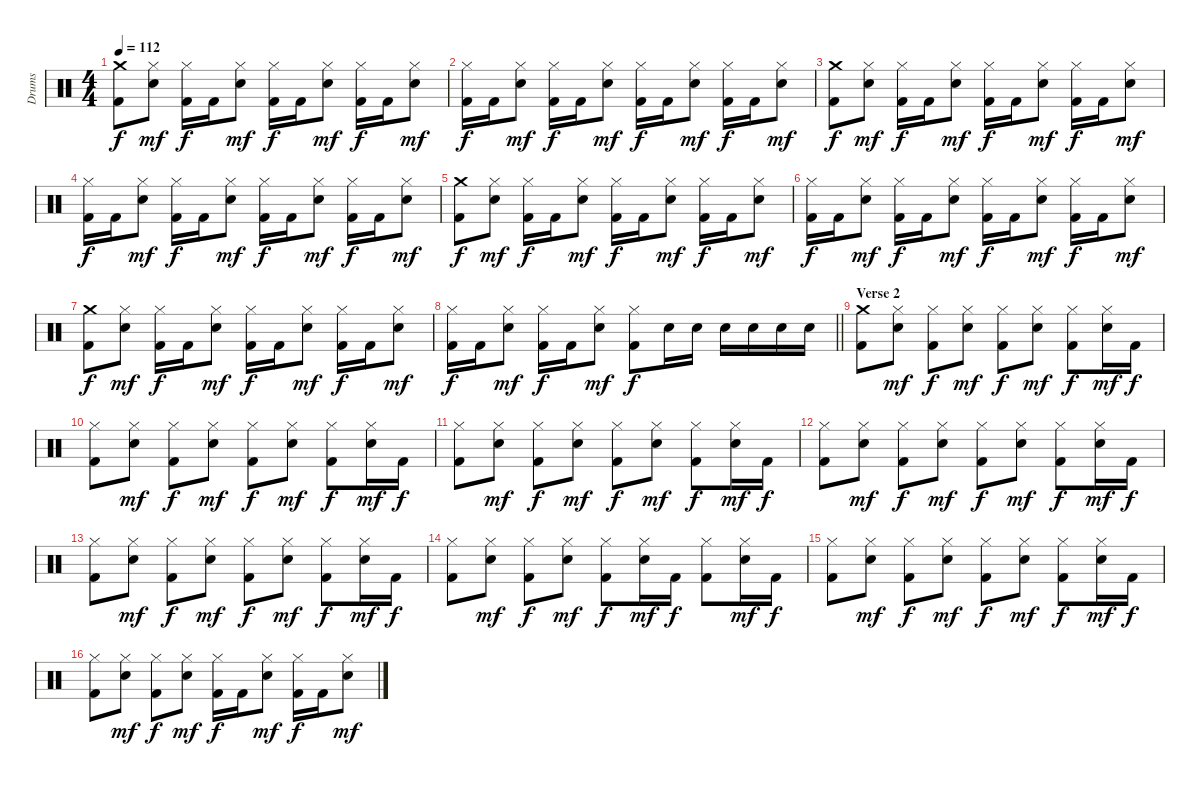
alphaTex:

\track ("Drums" "Drums") {instrument percussion}
\staff {score}
\articulation defaults
\ts (4 4)
\tempo 112
\clef neutral
\ks c
("Crash medium (hit)" "Kick (hit) 2").8{dy f} ("Hi-Hat (closed)" "Snare (hit) 2").8{dy mf} ("Hi-Hat (closed)" "Kick (hit) 2").16{dy f} "Kick (hit) 2".16 ("Hi-Hat (closed)" "Snare (hit) 2").8{dy mf} ("Hi-Hat (closed)" "Kick (hit) 2").16{dy f} "Kick (hit) 2".16 ("Hi-Hat (closed)" "Snare (hit) 2").8{dy mf} ("Hi-Hat (closed)" "Kick (hit) 2").16{dy f} "Kick (hit) 2".16 ("Hi-Hat (closed)" "Snare (hit) 2").8{dy mf} |
("Hi-Hat (closed)" "Kick (hit) 2").16{dy f} "Kick (hit) 2".16 ("Hi-Hat (closed)" "Snare (hit) 2").8{dy mf} ("Hi-Hat (closed)" "Kick (hit) 2").16{dy f} "Kick (hit) 2".16 ("Hi-Hat (closed)" "Snare (hit) 2").8{dy mf} ("Hi-Hat (closed)" "Kick (hit) 2").16{dy f} "Kick (hit) 2".16 ("Hi-Hat (closed)" "Snare (hit) 2").8{dy mf} ("Hi-Hat (closed)" "Kick (hit) 2").16{dy f} "Kick (hit) 2".16 ("Hi-Hat (closed)" "Snare (hit) 2").8{dy mf} |
("Crash medium (hit)" "Kick (hit) 2").8{dy f} ("Hi-Hat (closed)" "Snare (hit) 2").8{dy mf} ("Hi-Hat (closed)" "Kick (hit) 2").16{dy f} "Kick (hit) 2".16 ("Hi-Hat (closed)" "Snare (hit) 2").8{dy mf} ("Hi-Hat (closed)" "Kick (hit) 2").16{dy f} "Kick (hit) 2".16 ("Hi-Hat (closed)" "Snare (hit) 2").8{dy mf} ("Hi-Hat (closed)" "Kick (hit) 2").16{dy f} "Kick (hit) 2".16 ("Hi-Hat (closed)" "Snare (hit) 2").8{dy mf} |
("Hi-Hat (closed)" "Kick (hit) 2").16{dy f} "Kick (hit) 2".16 ("Hi-Hat (closed)" "Snare (hit) 2").8{dy mf} ("Hi-Hat (closed)" "Kick (hit) 2").16{dy f} "Kick (hit) 2".16 ("Hi-Hat (closed)" "Snare (hit) 2").8{dy mf} ("Hi-Hat (closed)" "Kick (hit) 2").16{dy f} "Kick (hit) 2".16 ("Hi-Hat (closed)" "Snare (hit) 2").8{dy mf} ("Hi-Hat (closed)" "Kick (hit) 2").16{dy f} "Kick (hit) 2".16 ("Hi-Hat (closed)" "Snare (hit) 2").8{dy mf} |
("Crash medium (hit)" "Kick (hit) 2").8{dy f} ("Hi-Hat (closed)" "Snare (hit) 2").8{dy mf} ("Hi-Hat (closed)" "Kick (hit) 2").16{dy f} "Kick (hit) 2".16 ("Hi-Hat (closed)" "Snare (hit) 2").8{dy mf} ("Hi-Hat (closed)" "Kick (hit) 2").16{dy f} "Kick (hit) 2".16 ("Hi-Hat (closed)" "Snare (hit) 2").8{dy mf} ("Hi-Hat (closed)" "Kick (hit) 2").16{dy f} "Kick (hit) 2".16 ("Hi-Hat (closed)" "Snare (hit) 2").8{dy mf} |
("Hi-Hat (closed)" "Kick (hit) 2").16{dy f} "Kick (hit) 2".16 ("Hi-Hat (closed)" "Snare (hit) 2").8{dy mf} ("Hi-Hat (closed)" "Kick (hit) 2").16{dy f} "Kick (hit) 2".16 ("Hi-Hat (closed)" "Snare (hit) 2").8{dy mf} ("Hi-Hat (closed)" "Kick (hit) 2").16{dy f} "Kick (hit) 2".16 ("Hi-Hat (closed)" "Snare (hit) 2").8{dy mf} ("Hi-Hat (closed)" "Kick (hit) 2").16{dy f} "Kick (hit) 2".16 ("Hi-Hat (closed)" "Snare (hit) 2").8{dy mf} |
("Crash medium (hit)" "Kick (hit) 2").8{dy f} ("Hi-Hat (closed)" "Snare (hit) 2").8{dy mf} ("Hi-Hat (closed)" "Kick (hit) 2").16{dy f} "Kick (hit) 2".16 ("Hi-Hat (closed)" "Snare (hit) 2").8{dy mf} ("Hi-Hat (closed)" "Kick (hit) 2").16{dy f} "Kick (hit) 2".16 ("Hi-Hat (closed)" "Snare (hit) 2").8{dy mf} ("Hi-Hat (closed)" "Kick (hit) 2").16{dy f} "Kick (hit) 2".16 ("Hi-Hat (closed)" "Snare (hit) 2").8{dy mf} |
\barLineRight lightlight
("Hi-Hat (closed)" "Kick (hit) 2").16{dy f} "Kick (hit) 2".16 ("Hi-Hat (closed)" "Snare (hit) 2").8{dy mf} ("Hi-Hat (closed)" "Kick (hit) 2").16{dy f} "Kick (hit) 2".16 ("Hi-Hat (closed)" "Snare (hit) 2").8{dy mf} ("Hi-Hat (closed)" "Kick (hit) 2").8{dy f} "Snare (hit) 2".16 "Snare (hit) 2".16 "Snare (hit) 2".16 "Snare (hit) 2".16 "Snare (hit) 2".16 "Snare (hit) 2".16 |
\section ("" "Verse 2")
("Crash medium (hit)" "Kick (hit) 2").8 ("Hi-Hat (closed)" "Snare (hit) 2").8{dy mf} ("Hi-Hat (closed)" "Kick (hit) 2").8{dy f} ("Hi-Hat (closed)" "Snare (hit) 2").8{dy mf} ("Hi-Hat (closed)" "Kick (hit) 2").8{dy f} ("Hi-Hat (closed)" "Snare (hit) 2").8{dy mf} ("Hi-Hat (closed)" "Kick (hit) 2").8{dy f} ("Hi-Hat (closed)" "Snare (hit) 2").16{dy mf} "Kick (hit) 2".16{dy f} |
("Hi-Hat (closed)" "Kick (hit) 2").8 ("Hi-Hat (closed)" "Snare (hit) 2").8{dy mf} ("Hi-Hat (closed)" "Kick (hit) 2").8{dy f} ("Hi-Hat (closed)" "Snare (hit) 2").8{dy mf} ("Hi-Hat (closed)" "Kick (hit) 2").8{dy f} ("Hi-Hat (closed)" "Snare (hit) 2").8{dy mf} ("Hi-Hat (closed)" "Kick (hit) 2").8{dy f} ("Hi-Hat (closed)" "Snare (hit) 2").16{dy mf} "Kick (hit) 2".16{dy f} |
("Hi-Hat (closed)" "Kick (hit) 2").8 ("Hi-Hat (closed)" "Snare (hit) 2").8{dy mf} ("Hi-Hat (closed)" "Kick (hit) 2").8{dy f} ("Hi-Hat (closed)" "Snare (hit) 2").8{dy mf} ("Hi-Hat (closed)" "Kick (hit) 2").8{dy f} ("Hi-Hat (closed)" "Snare (hit) 2").8{dy mf} ("Hi-Hat (closed)" "Kick (hit) 2").8{dy f} ("Hi-Hat (closed)" "Snare (hit) 2").16{dy mf} "Kick (hit) 2".16{dy f} |
("Hi-Hat (closed)" "Kick (hit) 2").8 ("Hi-Hat (closed)" "Snare (hit) 2").8{dy mf} ("Hi-Hat (closed)" "Kick (hit) 2").8{dy f} ("Hi-Hat (closed)" "Snare (hit) 2").8{dy mf} ("Hi-Hat (closed)" "Kick (hit) 2").8{dy f} ("Hi-Hat (closed)" "Snare (hit) 2").8{dy mf} ("Hi-Hat (closed)" "Kick (hit) 2").8{dy f} ("Hi-Hat (closed)" "Snare (hit) 2").16{dy mf} "Kick (hit) 2".16{dy f} |
("Hi-Hat (closed)" "Kick (hit) 2").8 ("Hi-Hat (closed)" "Snare (hit) 2").8{dy mf} ("Hi-Hat (closed)" "Kick (hit) 2").8{dy f} ("Hi-Hat (closed)" "Snare (hit) 2").8{dy mf} ("Hi-Hat (closed)" "Kick (hit) 2").8{dy f} ("Hi-Hat (closed)" "Snare (hit) 2").8{dy mf} ("Hi-Hat (closed)" "Kick (hit) 2").8{dy f} ("Hi-Hat (closed)" "Snare (hit) 2").16{dy mf} "Kick (hit) 2".16{dy f} |
("Hi-Hat (closed)" "Kick (hit) 2").8 ("Hi-Hat (closed)" "Snare (hit) 2").8{dy mf} ("Hi-Hat (closed)" "Kick (hit) 2").8{dy f} ("Hi-Hat (closed)" "Snare (hit) 2").8{dy mf} ("Hi-Hat (closed)" "Kick (hit) 2").8{dy f} ("Hi-Hat (closed)" "Snare (hit) 2").16{dy mf} "Kick (hit) 2".16{dy f} ("Hi-Hat (closed)" "Kick (hit) 2").8 ("Hi-Hat (closed)" "Snare (hit) 2").16{dy mf} "Kick (hit) 2".16{dy f} |
("Hi-Hat (closed)" "Kick (hit) 2").8 ("Hi-Hat (closed)" "Snare (hit) 2").8{dy mf} ("Hi-Hat (closed)" "Kick (hit) 2").8{dy f} ("Hi-Hat (closed)" "Snare (hit) 2").8{dy mf} ("Hi-Hat (closed)" "Kick (hit) 2").8{dy f} ("Hi-Hat (closed)" "Snare (hit) 2").8{dy mf} ("Hi-Hat (closed)" "Kick (hit) 2").8{dy f} ("Hi-Hat (closed)" "Snare (hit) 2").16{dy mf} "Kick (hit) 2".16{dy f} |
("Hi-Hat (closed)" "Kick (hit) 2").8 ("Hi-Hat (closed)" "Snare (hit) 2").8{dy mf} ("Hi-Hat (closed)" "Kick (hit) 2").8{dy f} ("Hi-Hat (closed)" "Snare (hit) 2").8{dy mf} ("Hi-Hat (closed)" "Kick (hit) 2").16{dy f} "Kick (hit) 2".16 ("Hi-Hat (closed)" "Snare (hit) 2").8{dy mf} ("Hi-Hat (closed)" "Kick (hit) 2").16{dy f} "Kick (hit) 2".16 ("Hi-Hat (closed)" "Snare (hit) 2").8{dy mf}
